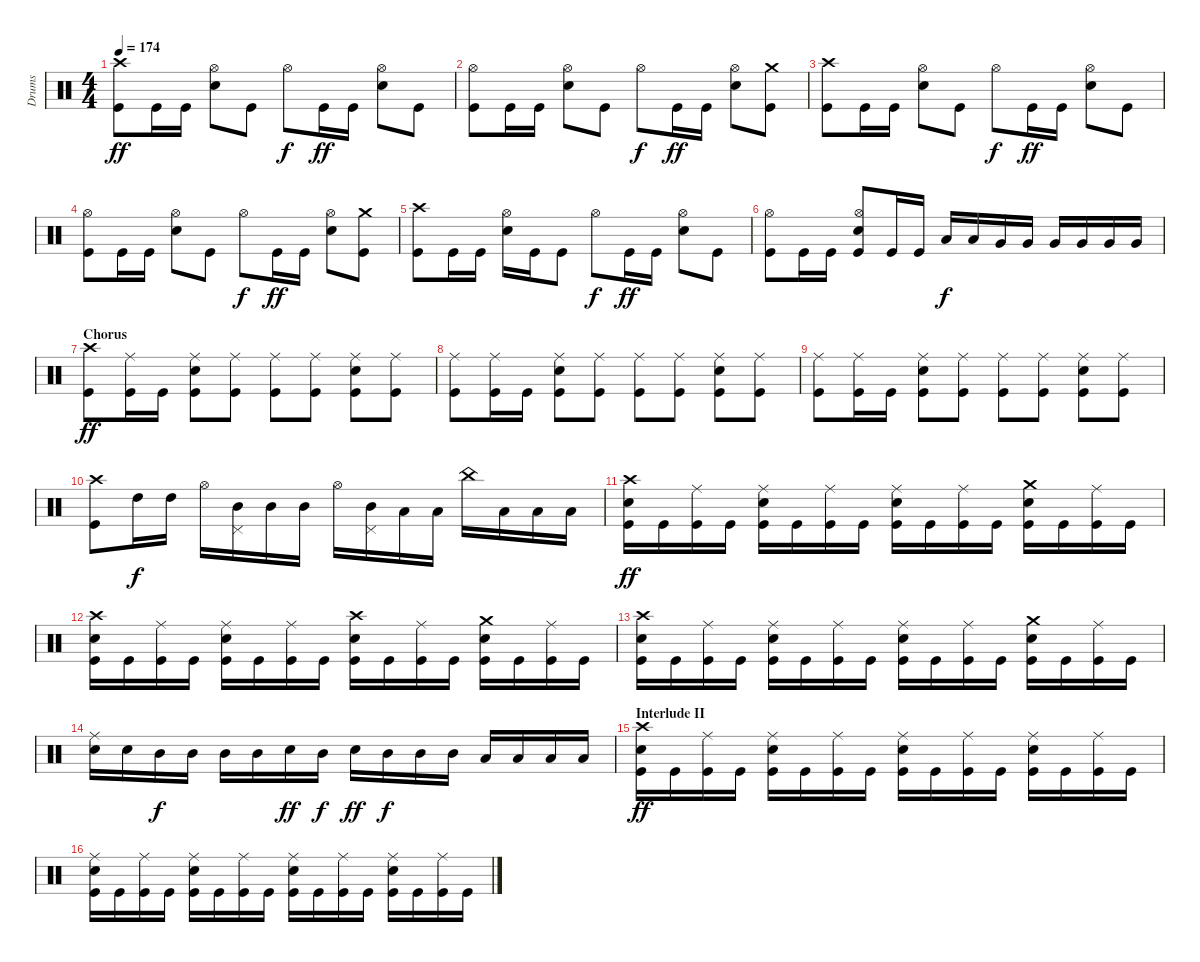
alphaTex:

\track ("Drums" "Drums") {instrument percussion}
\staff {score}
\articulation defaults
\ts (4 4)
\tempo 174
\clef neutral
\ks c
("Crash high (hit)" "Kick (hit)").8{dy ff} "Kick (hit)".16 "Kick (hit)".16 ("Hi-Hat (open)" "Electric Snare (hit)").8 "Kick (hit)".8 "Hi-Hat (open)".8{dy f} "Kick (hit)".16{dy ff} "Kick (hit)".16 ("Hi-Hat (open)" "Electric Snare (hit)").8 "Kick (hit)".8 |
("Hi-Hat (open)" "Kick (hit)").8 "Kick (hit)".16 "Kick (hit)".16 ("Hi-Hat (open)" "Electric Snare (hit)").8 "Kick (hit)".8 "Hi-Hat (open)".8{dy f} "Kick (hit)".16{dy ff} "Kick (hit)".16 ("Hi-Hat (open)" "Electric Snare (hit)").8 ("Crash medium (hit)" "Kick (hit)").8 |
("Crash high (hit)" "Kick (hit)").8 "Kick (hit)".16 "Kick (hit)".16 ("Hi-Hat (open)" "Electric Snare (hit)").8 "Kick (hit)".8 "Hi-Hat (open)".8{dy f} "Kick (hit)".16{dy ff} "Kick (hit)".16 ("Hi-Hat (open)" "Electric Snare (hit)").8 "Kick (hit)".8 |
("Hi-Hat (open)" "Kick (hit)").8 "Kick (hit)".16 "Kick (hit)".16 ("Hi-Hat (open)" "Electric Snare (hit)").8 "Kick (hit)".8 "Hi-Hat (open)".8{dy f} "Kick (hit)".16{dy ff} "Kick (hit)".16 ("Hi-Hat (open)" "Electric Snare (hit)").8 ("Crash medium (hit)" "Kick (hit)").8 |
("Crash high (hit)" "Kick (hit)").8 "Kick (hit)".16 "Kick (hit)".16 ("Hi-Hat (open)" "Electric Snare (hit)").16 "Kick (hit)".16 "Kick (hit)".8 "Hi-Hat (open)".8{dy f} "Kick (hit)".16{dy ff} "Kick (hit)".16 ("Hi-Hat (open)" "Electric Snare (hit)").8 "Kick (hit)".8 |
("Hi-Hat (open)" "Kick (hit)").8 "Kick (hit)".16 "Kick (hit)".16 ("Hi-Hat (open)" "Electric Snare (hit)" "Kick (hit)").8 "Kick (hit)".16 "Kick (hit)".16 "Low Tom (hit)".16{dy f} "Low Tom (hit)".16 "Very Low Tom (hit)".16 "Very Low Tom (hit)".16 "Very Low Tom (hit)".16 "Very Low Tom (hit)".16 "Very Low Tom (hit)".16 "Very Low Tom (hit)".16 |
\section ("" "Chorus")
("Crash high (hit)" "Kick (hit)").8{dy ff} ("Ride (middle)" "Kick (hit)").16 "Kick (hit)".16 ("Ride (middle)" "Electric Snare (hit)" "Kick (hit)").8 ("Ride (middle)" "Kick (hit)").8 ("Ride (middle)" "Kick (hit)").8 ("Ride (middle)" "Kick (hit)").8 ("Ride (middle)" "Electric Snare (hit)" "Kick (hit)").8 ("Ride (middle)" "Kick (hit)").8 |
("Ride (middle)" "Kick (hit)").8 ("Ride (middle)" "Kick (hit)").16 "Kick (hit)".16 ("Ride (middle)" "Electric Snare (hit)" "Kick (hit)").8 ("Ride (middle)" "Kick (hit)").8 ("Ride (middle)" "Kick (hit)").8 ("Ride (middle)" "Kick (hit)").8 ("Ride (middle)" "Electric Snare (hit)" "Kick (hit)").8 ("Ride (middle)" "Kick (hit)").8 |
("Ride (middle)" "Kick (hit)").8 ("Ride (middle)" "Kick (hit)").16 "Kick (hit)".16 ("Ride (middle)" "Electric Snare (hit)" "Kick (hit)").8 ("Ride (middle)" "Kick (hit)").8 ("Ride (middle)" "Kick (hit)").8 ("Ride (middle)" "Kick (hit)").8 ("Ride (middle)" "Electric Snare (hit)" "Kick (hit)").8 ("Ride (middle)" "Kick (hit)").8 |
("Crash high (hit)" "Kick (hit)").8 "High Tom (hit)".16{dy f} "High Tom (hit)".16 "Hi-Hat (open)".16 ("Pedal Hi-Hat (hit)" "Mid Tom (hit)").16 "Mid Tom (hit)".16 "Mid Tom (hit)".16 "Hi-Hat (open)".16 ("Pedal Hi-Hat (hit)" "Mid Tom (hit)").16 "Low Tom (hit)".16 "Low Tom (hit)".16 "China (hit)".16 "Low Tom (hit)".16 "Low Tom (hit)".16 "Low Tom (hit)".16 |
("Crash high (hit)" "Electric Snare (hit)" "Kick (hit)").16{dy ff} "Kick (hit)".16 ("Ride (middle)" "Kick (hit)").16 "Kick (hit)".16 ("Ride (middle)" "Electric Snare (hit)" "Kick (hit)").16 "Kick (hit)".16 ("Ride (middle)" "Kick (hit)").16 "Kick (hit)".16 ("Ride (middle)" "Electric Snare (hit)" "Kick (hit)").16 "Kick (hit)".16 ("Ride (middle)" "Kick (hit)").16 "Kick (hit)".16 ("Crash medium (hit)" "Electric Snare (hit)" "Kick (hit)").16 "Kick (hit)".16 ("Ride (middle)" "Kick (hit)").16 "Kick (hit)".16 |
("Crash high (hit)" "Electric Snare (hit)" "Kick (hit)").16 "Kick (hit)".16 ("Ride (middle)" "Kick (hit)").16 "Kick (hit)".16 ("Ride (middle)" "Electric Snare (hit)" "Kick (hit)").16 "Kick (hit)".16 ("Ride (middle)" "Kick (hit)").16 "Kick (hit)".16 ("Crash high (hit)" "Electric Snare (hit)" "Kick (hit)").16 "Kick (hit)".16 ("Ride (middle)" "Kick (hit)").16 "Kick (hit)".16 ("Crash medium (hit)" "Electric Snare (hit)" "Kick (hit)").16 "Kick (hit)".16 ("Ride (middle)" "Kick (hit)").16 "Kick (hit)".16 |
("Crash high (hit)" "Electric Snare (hit)" "Kick (hit)").16 "Kick (hit)".16 ("Ride (middle)" "Kick (hit)").16 "Kick (hit)".16 ("Ride (middle)" "Electric Snare (hit)" "Kick (hit)").16 "Kick (hit)".16 ("Ride (middle)" "Kick (hit)").16 "Kick (hit)".16 ("Ride (middle)" "Electric Snare (hit)" "Kick (hit)").16 "Kick (hit)".16 ("Ride (middle)" "Kick (hit)").16 "Kick (hit)".16 ("Crash medium (hit)" "Electric Snare (hit)" "Kick (hit)").16 "Kick (hit)".16 ("Ride (middle)" "Kick (hit)").16 "Kick (hit)".16 |
("Ride (middle)" "Electric Snare (hit)").16 "Electric Snare (hit)".16 "Mid Tom (hit)".16{dy f} "Mid Tom (hit)".16 "Mid Tom (hit)".16 "Mid Tom (hit)".16 "Electric Snare (hit)".16{dy ff} "Mid Tom (hit)".16{dy f} "Electric Snare (hit)".16{dy ff} "Mid Tom (hit)".16{dy f} "Mid Tom (hit)".16 "Mid Tom (hit)".16 "Low Tom (hit)".16 "Low Tom (hit)".16 "Low Tom (hit)".16 "Low Tom (hit)".16 |
\section ("" "Interlude II")
("Crash high (hit)" "Electric Snare (hit)" "Kick (hit)").16{dy ff} "Kick (hit)".16 ("Ride (middle)" "Kick (hit)").16 "Kick (hit)".16 ("Ride (middle)" "Electric Snare (hit)" "Kick (hit)").16 "Kick (hit)".16 ("Ride (middle)" "Kick (hit)").16 "Kick (hit)".16 ("Ride (middle)" "Electric Snare (hit)" "Kick (hit)").16 "Kick (hit)".16 ("Ride (middle)" "Kick (hit)").16 "Kick (hit)".16 ("Ride (middle)" "Electric Snare (hit)" "Kick (hit)").16 "Kick (hit)".16 ("Ride (middle)" "Kick (hit)").16 "Kick (hit)".16 |
("Ride (middle)" "Electric Snare (hit)" "Kick (hit)").16 "Kick (hit)".16 ("Ride (middle)" "Kick (hit)").16 "Kick (hit)".16 ("Ride (middle)" "Electric Snare (hit)" "Kick (hit)").16 "Kick (hit)".16 ("Ride (middle)" "Kick (hit)").16 "Kick (hit)".16 ("Ride (middle)" "Electric Snare (hit)" "Kick (hit)").16 "Kick (hit)".16 ("Ride (middle)" "Kick (hit)").16 "Kick (hit)".16 ("Ride (middle)" "Electric Snare (hit)" "Kick (hit)").16 "Kick (hit)".16 ("Ride (middle)" "Kick (hit)").16 "Kick (hit)".16
